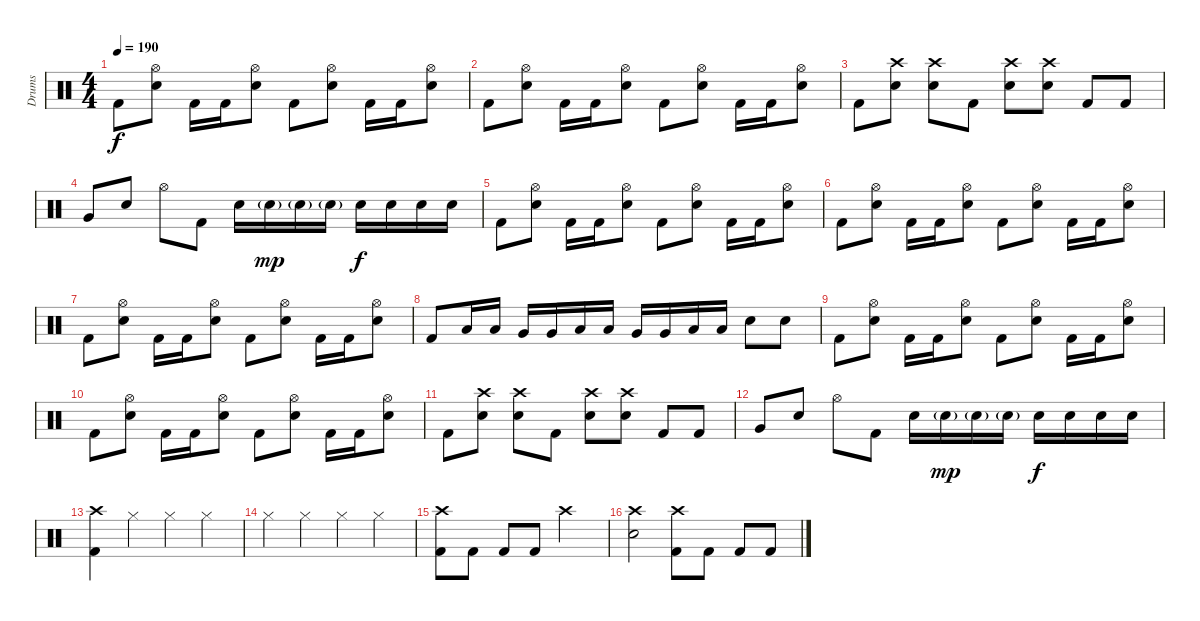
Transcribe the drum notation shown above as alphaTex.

\track ("Drums" "Drums") {instrument percussion}
\staff {score}
\articulation defaults
\ts (4 4)
\tempo 190
\clef neutral
\ks c "Kick (hit) 2".8{dy f}
("Hi-Hat (open)" "Electric Snare (hit)").8 "Kick (hit) 2".16 "Kick (hit) 2".16 ("Hi-Hat (open)" "Electric Snare (hit)").8 "Kick (hit) 2".8 ("Hi-Hat (open)" "Electric Snare (hit)").8 "Kick (hit) 2".16 "Kick (hit) 2".16 ("Hi-Hat (open)" "Electric Snare (hit)").8 |
"Kick (hit) 2".8 ("Hi-Hat (open)" "Electric Snare (hit)").8 "Kick (hit) 2".16 "Kick (hit) 2".16 ("Hi-Hat (open)" "Electric Snare (hit)").8 "Kick (hit) 2".8 ("Hi-Hat (open)" "Electric Snare (hit)").8 "Kick (hit) 2".16 "Kick (hit) 2".16 ("Hi-Hat (open)" "Electric Snare (hit)").8 |
"Kick (hit) 2".8 ("Crash high (hit)" "Electric Snare (hit)").8 ("Crash high (hit)" "Electric Snare (hit)").8 "Kick (hit) 2".8 ("Crash high (hit)" "Electric Snare (hit)").8 ("Crash high (hit)" "Electric Snare (hit)").8 "Kick (hit) 2".8 "Kick (hit) 2".8 |
"Very Low Tom (hit)".8 "Electric Snare (hit)".8 "Hi-Hat (open)".8 "Kick (hit) 2".8 "Electric Snare (hit)".16 "Electric Snare (hit)"{g}.16{dy mp} "Electric Snare (hit)"{g}.16 "Electric Snare (hit)"{g}.16 "Electric Snare (hit)".16{dy f} "Electric Snare (hit)".16 "Electric Snare (hit)".16 "Electric Snare (hit)".16 |
"Kick (hit) 2".8 ("Hi-Hat (open)" "Electric Snare (hit)").8 "Kick (hit) 2".16 "Kick (hit) 2".16 ("Hi-Hat (open)" "Electric Snare (hit)").8 "Kick (hit) 2".8 ("Hi-Hat (open)" "Electric Snare (hit)").8 "Kick (hit) 2".16 "Kick (hit) 2".16 ("Hi-Hat (open)" "Electric Snare (hit)").8 |
"Kick (hit) 2".8 ("Hi-Hat (open)" "Electric Snare (hit)").8 "Kick (hit) 2".16 "Kick (hit) 2".16 ("Hi-Hat (open)" "Electric Snare (hit)").8 "Kick (hit) 2".8 ("Hi-Hat (open)" "Electric Snare (hit)").8 "Kick (hit) 2".16 "Kick (hit) 2".16 ("Hi-Hat (open)" "Electric Snare (hit)").8 |
"Kick (hit) 2".8 ("Hi-Hat (open)" "Electric Snare (hit)").8 "Kick (hit) 2".16 "Kick (hit) 2".16 ("Hi-Hat (open)" "Electric Snare (hit)").8 "Kick (hit) 2".8 ("Hi-Hat (open)" "Electric Snare (hit)").8 "Kick (hit) 2".16 "Kick (hit) 2".16 ("Hi-Hat (open)" "Electric Snare (hit)").8 |
"Kick (hit) 2".8 "Low Tom (hit)".16 "Low Tom (hit)".16 "Very Low Tom (hit)".16 "Very Low Tom (hit)".16 "Low Floor Tom (hit)".16 "Low Floor Tom (hit)".16 "Very Low Tom (hit)".16 "Very Low Tom (hit)".16 "Low Floor Tom (hit)".16 "Low Floor Tom (hit)".16 "Electric Snare (hit)".8 "Electric Snare (hit)".8 |
"Kick (hit) 2".8 ("Hi-Hat (open)" "Electric Snare (hit)").8 "Kick (hit) 2".16 "Kick (hit) 2".16 ("Hi-Hat (open)" "Electric Snare (hit)").8 "Kick (hit) 2".8 ("Hi-Hat (open)" "Electric Snare (hit)").8 "Kick (hit) 2".16 "Kick (hit) 2".16 ("Hi-Hat (open)" "Electric Snare (hit)").8 |
"Kick (hit) 2".8 ("Hi-Hat (open)" "Electric Snare (hit)").8 "Kick (hit) 2".16 "Kick (hit) 2".16 ("Hi-Hat (open)" "Electric Snare (hit)").8 "Kick (hit) 2".8 ("Hi-Hat (open)" "Electric Snare (hit)").8 "Kick (hit) 2".16 "Kick (hit) 2".16 ("Hi-Hat (open)" "Electric Snare (hit)").8 |
"Kick (hit) 2".8 ("Crash high (hit)" "Electric Snare (hit)").8 ("Crash high (hit)" "Electric Snare (hit)").8 "Kick (hit) 2".8 ("Crash high (hit)" "Electric Snare (hit)").8 ("Crash high (hit)" "Electric Snare (hit)").8 "Kick (hit) 2".8 "Kick (hit) 2".8 |
"Very Low Tom (hit)".8 "Electric Snare (hit)".8 "Hi-Hat (open)".8 "Kick (hit) 2".8 "Electric Snare (hit)".16 "Electric Snare (hit)"{g}.16{dy mp} "Electric Snare (hit)"{g}.16 "Electric Snare (hit)"{g}.16 "Electric Snare (hit)".16{dy f} "Electric Snare (hit)".16 "Electric Snare (hit)".16 "Electric Snare (hit)".16 |
("Crash high (hit)" "Kick (hit) 2").4 "Hi-Hat (closed)".4 "Hi-Hat (closed)".4 "Hi-Hat (closed)".4 |
"Hi-Hat (closed)".4 "Hi-Hat (closed)".4 "Hi-Hat (closed)".4 "Hi-Hat (closed)".4 |
("Crash high (hit)" "Kick (hit) 2").8 "Kick (hit) 2".8 "Kick (hit) 2".8 "Kick (hit) 2".8 "Crash high (hit)".2 |
("Crash high (hit)" "Electric Snare (hit)").2 ("Crash high (hit)" "Kick (hit) 2").8 "Kick (hit) 2".8 "Kick (hit) 2".8 "Kick (hit) 2".8
